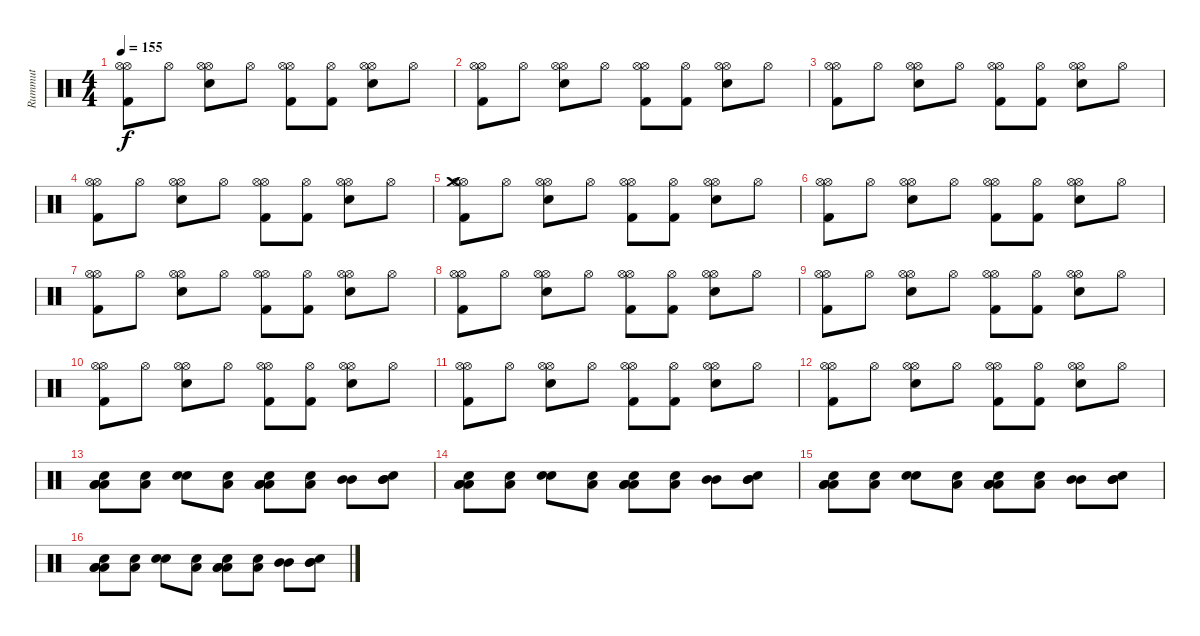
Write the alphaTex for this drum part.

\track ("Rummut" "Rummut") {instrument percussion}
\staff {score}
\articulation defaults
\ts (4 4)
\tempo 155
\clef neutral
\ks c
("Hi-Hat (open)" "Hi-Hat (open)" "Kick (hit) 2").8{dy f} "Hi-Hat (open)".8 ("Hi-Hat (open)" "Hi-Hat (open)" "Electric Snare (hit)").8 "Hi-Hat (open)".8 ("Hi-Hat (open)" "Hi-Hat (open)" "Kick (hit) 2").8 ("Hi-Hat (open)" "Kick (hit) 2").8 ("Hi-Hat (open)" "Hi-Hat (open)" "Electric Snare (hit)").8 "Hi-Hat (open)".8 |
("Hi-Hat (open)" "Hi-Hat (open)" "Kick (hit) 2").8 "Hi-Hat (open)".8 ("Hi-Hat (open)" "Hi-Hat (open)" "Electric Snare (hit)").8 "Hi-Hat (open)".8 ("Hi-Hat (open)" "Hi-Hat (open)" "Kick (hit) 2").8 ("Hi-Hat (open)" "Kick (hit) 2").8 ("Hi-Hat (open)" "Hi-Hat (open)" "Electric Snare (hit)").8 "Hi-Hat (open)".8 |
("Hi-Hat (open)" "Hi-Hat (open)" "Kick (hit) 2").8 "Hi-Hat (open)".8 ("Hi-Hat (open)" "Hi-Hat (open)" "Electric Snare (hit)").8 "Hi-Hat (open)".8 ("Hi-Hat (open)" "Hi-Hat (open)" "Kick (hit) 2").8 ("Hi-Hat (open)" "Kick (hit) 2").8 ("Hi-Hat (open)" "Hi-Hat (open)" "Electric Snare (hit)").8 "Hi-Hat (open)".8 |
("Hi-Hat (open)" "Hi-Hat (open)" "Kick (hit) 2").8 "Hi-Hat (open)".8 ("Hi-Hat (open)" "Hi-Hat (open)" "Electric Snare (hit)").8 "Hi-Hat (open)".8 ("Hi-Hat (open)" "Hi-Hat (open)" "Kick (hit) 2").8 ("Hi-Hat (open)" "Kick (hit) 2").8 ("Hi-Hat (open)" "Hi-Hat (open)" "Electric Snare (hit)").8 "Hi-Hat (open)".8 |
("Hi-Hat (open)" "Hi-Hat (open)" "Kick (hit) 2" "Crash medium (hit)").8 "Hi-Hat (open)".8 ("Hi-Hat (open)" "Hi-Hat (open)" "Electric Snare (hit)").8 "Hi-Hat (open)".8 ("Hi-Hat (open)" "Hi-Hat (open)" "Kick (hit) 2").8 ("Hi-Hat (open)" "Kick (hit) 2").8 ("Hi-Hat (open)" "Hi-Hat (open)" "Electric Snare (hit)").8 "Hi-Hat (open)".8 |
("Hi-Hat (open)" "Hi-Hat (open)" "Kick (hit) 2").8 "Hi-Hat (open)".8 ("Hi-Hat (open)" "Hi-Hat (open)" "Electric Snare (hit)").8 "Hi-Hat (open)".8 ("Hi-Hat (open)" "Hi-Hat (open)" "Kick (hit) 2").8 ("Hi-Hat (open)" "Kick (hit) 2").8 ("Hi-Hat (open)" "Hi-Hat (open)" "Electric Snare (hit)").8 "Hi-Hat (open)".8 |
("Hi-Hat (open)" "Hi-Hat (open)" "Kick (hit) 2").8 "Hi-Hat (open)".8 ("Hi-Hat (open)" "Hi-Hat (open)" "Electric Snare (hit)").8 "Hi-Hat (open)".8 ("Hi-Hat (open)" "Hi-Hat (open)" "Kick (hit) 2").8 ("Hi-Hat (open)" "Kick (hit) 2").8 ("Hi-Hat (open)" "Hi-Hat (open)" "Electric Snare (hit)").8 "Hi-Hat (open)".8 |
("Hi-Hat (open)" "Hi-Hat (open)" "Kick (hit) 2").8 "Hi-Hat (open)".8 ("Hi-Hat (open)" "Hi-Hat (open)" "Electric Snare (hit)").8 "Hi-Hat (open)".8 ("Hi-Hat (open)" "Hi-Hat (open)" "Kick (hit) 2").8 ("Hi-Hat (open)" "Kick (hit) 2").8 ("Hi-Hat (open)" "Hi-Hat (open)" "Electric Snare (hit)").8 "Hi-Hat (open)".8 |
("Hi-Hat (open)" "Hi-Hat (open)" "Kick (hit) 2").8 "Hi-Hat (open)".8 ("Hi-Hat (open)" "Hi-Hat (open)" "Electric Snare (hit)").8 "Hi-Hat (open)".8 ("Hi-Hat (open)" "Hi-Hat (open)" "Kick (hit) 2").8 ("Hi-Hat (open)" "Kick (hit) 2").8 ("Hi-Hat (open)" "Hi-Hat (open)" "Electric Snare (hit)").8 "Hi-Hat (open)".8 |
("Hi-Hat (open)" "Hi-Hat (open)" "Kick (hit) 2").8 "Hi-Hat (open)".8 ("Hi-Hat (open)" "Hi-Hat (open)" "Electric Snare (hit)").8 "Hi-Hat (open)".8 ("Hi-Hat (open)" "Hi-Hat (open)" "Kick (hit) 2").8 ("Hi-Hat (open)" "Kick (hit) 2").8 ("Hi-Hat (open)" "Hi-Hat (open)" "Electric Snare (hit)").8 "Hi-Hat (open)".8 |
("Hi-Hat (open)" "Hi-Hat (open)" "Kick (hit) 2").8 "Hi-Hat (open)".8 ("Hi-Hat (open)" "Hi-Hat (open)" "Electric Snare (hit)").8 "Hi-Hat (open)".8 ("Hi-Hat (open)" "Hi-Hat (open)" "Kick (hit) 2").8 ("Hi-Hat (open)" "Kick (hit) 2").8 ("Hi-Hat (open)" "Hi-Hat (open)" "Electric Snare (hit)").8 "Hi-Hat (open)".8 |
("Hi-Hat (open)" "Hi-Hat (open)" "Kick (hit) 2").8 "Hi-Hat (open)".8 ("Hi-Hat (open)" "Hi-Hat (open)" "Electric Snare (hit)").8 "Hi-Hat (open)".8 ("Hi-Hat (open)" "Hi-Hat (open)" "Kick (hit) 2").8 ("Hi-Hat (open)" "Kick (hit) 2").8 ("Hi-Hat (open)" "Hi-Hat (open)" "Electric Snare (hit)").8 "Hi-Hat (open)".8 |
("Low Floor Tom (hit)" "Low Floor Tom (hit)" "Low Floor Tom (hit)" "Snare (hit)"{x}).8 ("Low Floor Tom (hit)" "Snare (hit)"{x}).8 ("Snare (hit) 2" "Snare (hit) 2").8 ("Low Floor Tom (hit)" "Snare (hit)"{x}).8 ("Low Floor Tom (hit)" "Low Floor Tom (hit)" "Low Floor Tom (hit)" "Snare (hit)"{x}).8 ("Low Floor Tom (hit)" "Snare (hit)"{x}).8 ("Mid Tom (hit)" "Mid Tom (hit)").8 ("Mid Tom (hit)" "Mid Tom (hit)" "Snare (hit)"{x}).8 |
("Low Floor Tom (hit)" "Low Floor Tom (hit)" "Low Floor Tom (hit)" "Snare (hit)"{x}).8 ("Low Floor Tom (hit)" "Snare (hit)"{x}).8 ("Snare (hit) 2" "Snare (hit) 2").8 ("Low Floor Tom (hit)" "Snare (hit)"{x}).8 ("Low Floor Tom (hit)" "Low Floor Tom (hit)" "Low Floor Tom (hit)" "Snare (hit)"{x}).8 ("Low Floor Tom (hit)" "Snare (hit)"{x}).8 ("Mid Tom (hit)" "Mid Tom (hit)").8 ("Mid Tom (hit)" "Mid Tom (hit)" "Snare (hit)"{x}).8 |
("Low Floor Tom (hit)" "Low Floor Tom (hit)" "Low Floor Tom (hit)" "Snare (hit)"{x}).8 ("Low Floor Tom (hit)" "Snare (hit)"{x}).8 ("Snare (hit) 2" "Snare (hit) 2").8 ("Low Floor Tom (hit)" "Snare (hit)"{x}).8 ("Low Floor Tom (hit)" "Low Floor Tom (hit)" "Low Floor Tom (hit)" "Snare (hit)"{x}).8 ("Low Floor Tom (hit)" "Snare (hit)"{x}).8 ("Mid Tom (hit)" "Mid Tom (hit)").8 ("Mid Tom (hit)" "Mid Tom (hit)" "Snare (hit)"{x}).8 |
("Low Floor Tom (hit)" "Low Floor Tom (hit)" "Low Floor Tom (hit)" "Snare (hit)"{x}).8 ("Low Floor Tom (hit)" "Snare (hit)"{x}).8 ("Snare (hit) 2" "Snare (hit) 2").8 ("Low Floor Tom (hit)" "Snare (hit)"{x}).8 ("Low Floor Tom (hit)" "Low Floor Tom (hit)" "Low Floor Tom (hit)" "Snare (hit)"{x}).8 ("Low Floor Tom (hit)" "Snare (hit)"{x}).8 ("Mid Tom (hit)" "Mid Tom (hit)").8 ("Mid Tom (hit)" "Mid Tom (hit)" "Snare (hit)"{x}).8
